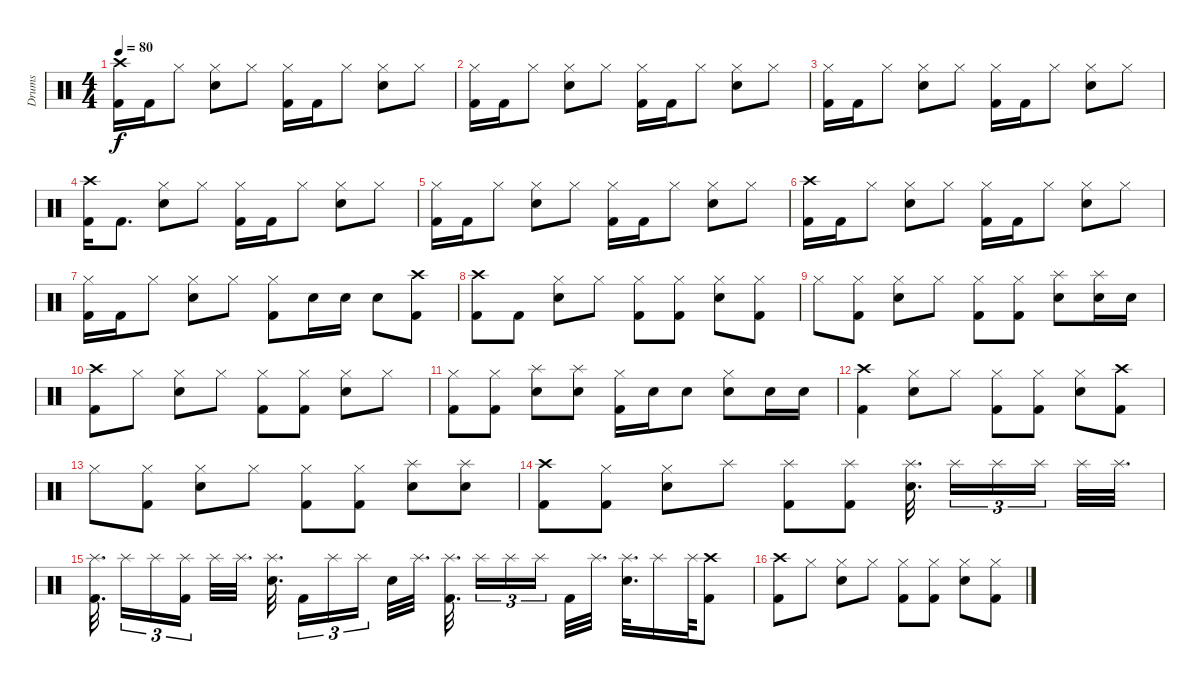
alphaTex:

\track ("Drums         " "Drums     ") {instrument percussion}
\staff {score}
\articulation defaults
\ts (4 4)
\tempo 80
\clef neutral
\ks c
("Kick (hit) 2" "Crash high (hit)").16{dy f} "Kick (hit) 2".16 "Hi-Hat (closed)".8 ("Snare (hit) 2" "Hi-Hat (closed)").8 "Hi-Hat (closed)".8 ("Kick (hit) 2" "Hi-Hat (closed)").16 "Kick (hit) 2".16 "Hi-Hat (closed)".8 ("Snare (hit) 2" "Hi-Hat (closed)").8 "Hi-Hat (closed)".8 |
("Kick (hit) 2" "Hi-Hat (closed)").16 "Kick (hit) 2".16 "Hi-Hat (closed)".8 ("Snare (hit) 2" "Hi-Hat (closed)").8 "Hi-Hat (closed)".8 ("Kick (hit) 2" "Hi-Hat (closed)").16 "Kick (hit) 2".16 "Hi-Hat (closed)".8 ("Snare (hit) 2" "Hi-Hat (closed)").8 "Hi-Hat (closed)".8 |
("Kick (hit) 2" "Hi-Hat (closed)").16 "Kick (hit) 2".16 "Hi-Hat (closed)".8 ("Snare (hit) 2" "Hi-Hat (closed)").8 "Hi-Hat (closed)".8 ("Kick (hit) 2" "Hi-Hat (closed)").16 "Kick (hit) 2".16 "Hi-Hat (closed)".8 ("Snare (hit) 2" "Hi-Hat (closed)").8 "Hi-Hat (closed)".8 |
("Kick (hit) 2" "Crash high (hit)").16 "Kick (hit) 2".8{d} ("Snare (hit) 2" "Hi-Hat (closed)").8 "Hi-Hat (closed)".8 ("Kick (hit) 2" "Hi-Hat (closed)").16 "Kick (hit) 2".16 "Hi-Hat (closed)".8 ("Snare (hit) 2" "Hi-Hat (closed)").8 "Hi-Hat (closed)".8 |
("Kick (hit) 2" "Hi-Hat (closed)").16 "Kick (hit) 2".16 "Hi-Hat (closed)".8 ("Snare (hit) 2" "Hi-Hat (closed)").8 "Hi-Hat (closed)".8 ("Kick (hit) 2" "Hi-Hat (closed)").16 "Kick (hit) 2".16 "Hi-Hat (closed)".8 ("Snare (hit) 2" "Hi-Hat (closed)").8 "Hi-Hat (closed)".8 |
("Kick (hit) 2" "Crash high (hit)").16 "Kick (hit) 2".16 "Hi-Hat (closed)".8 ("Snare (hit) 2" "Hi-Hat (closed)").8 "Hi-Hat (closed)".8 ("Kick (hit) 2" "Hi-Hat (closed)").16 "Kick (hit) 2".16 "Hi-Hat (closed)".8 ("Snare (hit) 2" "Hi-Hat (closed)").8 "Hi-Hat (closed)".8 |
("Kick (hit) 2" "Hi-Hat (closed)").16 "Kick (hit) 2".16 "Hi-Hat (closed)".8 ("Snare (hit) 2" "Hi-Hat (closed)").8 "Hi-Hat (closed)".8 ("Kick (hit) 2" "Hi-Hat (closed)").8 "Snare (hit) 2".16 "Snare (hit) 2".16 "Snare (hit) 2".8 ("Kick (hit) 2" "Crash high (hit)").8 |
("Kick (hit) 2" "Crash high (hit)").8 "Kick (hit) 2".8 ("Snare (hit) 2" "Hi-Hat (closed)").8 "Hi-Hat (closed)".8 ("Kick (hit) 2" "Hi-Hat (closed)").8 ("Kick (hit) 2" "Hi-Hat (closed)").8 ("Snare (hit) 2" "Hi-Hat (closed)").8 ("Kick (hit) 2" "Hi-Hat (closed)").8 |
"Hi-Hat (closed)".8 ("Kick (hit) 2" "Hi-Hat (closed)").8 ("Snare (hit) 2" "Hi-Hat (closed)").8 "Hi-Hat (closed)".8 ("Kick (hit) 2" "Hi-Hat (closed)").8 ("Kick (hit) 2" "Hi-Hat (closed)").8 ("Snare (hit) 2" "Splash (hit)").8 ("Snare (hit) 2" "Splash (hit)").16 "Snare (hit) 2".16 |
("Kick (hit) 2" "Crash high (hit)").8 "Hi-Hat (closed)".8 ("Snare (hit) 2" "Hi-Hat (closed)").8 "Hi-Hat (closed)".8 ("Kick (hit) 2" "Hi-Hat (closed)").8 ("Kick (hit) 2" "Hi-Hat (closed)").8 ("Snare (hit) 2" "Hi-Hat (closed)").8 "Hi-Hat (closed)".8 |
("Kick (hit) 2" "Hi-Hat (closed)").8 ("Kick (hit) 2" "Hi-Hat (closed)").8 ("Snare (hit) 2" "Splash (hit)").8 ("Snare (hit) 2" "Splash (hit)").8 ("Kick (hit) 2" "Hi-Hat (closed)").16 "Snare (hit) 2".16 "Snare (hit) 2".8 ("Snare (hit) 2" "Hi-Hat (closed)").8 "Snare (hit) 2".16 "Snare (hit) 2".16 |
("Kick (hit) 2" "Crash high (hit)").4 ("Snare (hit) 2" "Hi-Hat (closed)").8 "Hi-Hat (closed)".8 ("Kick (hit) 2" "Hi-Hat (closed)").8 ("Kick (hit) 2" "Hi-Hat (closed)").8 ("Snare (hit) 2" "Hi-Hat (closed)").8 ("Kick (hit) 2" "Crash high (hit)").8 |
"Hi-Hat (closed)".8 ("Kick (hit) 2" "Hi-Hat (closed)").8 ("Snare (hit) 2" "Hi-Hat (closed)").8 "Hi-Hat (closed)".8 ("Kick (hit) 2" "Hi-Hat (closed)").8 ("Kick (hit) 2" "Hi-Hat (closed)").8 ("Snare (hit) 2" "Splash (hit)").8 ("Snare (hit) 2" "Splash (hit)").8 |
("Kick (hit) 2" "Crash high (hit)").8 ("Kick (hit) 2" "Hi-Hat (closed)").8 ("Snare (hit) 2" "Hi-Hat (closed)").8 "Splash (hit)".8 ("Kick (hit) 2" "Splash (hit)").8 ("Kick (hit) 2" "Splash (hit)").8 ("Snare (hit) 2" "Splash (hit)").32{d beam splitsecondary} "Splash (hit)".16{tu (3 2)} "Splash (hit)".16{tu (3 2)} "Splash (hit)".16{tu (3 2) beam splitsecondary} "Splash (hit)".32 "Splash (hit)".32{d} |
("Kick (hit) 2" "Splash (hit)").32{d beam splitsecondary} "Splash (hit)".16{tu (3 2)} "Splash (hit)".16{tu (3 2)} ("Kick (hit) 2" "Splash (hit)").16{tu (3 2) beam splitsecondary} "Splash (hit)".32 "Splash (hit)".32{d} ("Snare (hit) 2" "Splash (hit)").32{d beam splitsecondary} "Kick (hit) 2".16{tu (3 2)} "Splash (hit)".16{tu (3 2)} "Splash (hit)".16{tu (3 2) beam splitsecondary} "Snare (hit) 2".32 "Splash (hit)".32{d} ("Kick (hit) 2" "Splash (hit)").32{d beam splitsecondary} "Splash (hit)".16{tu (3 2)} "Splash (hit)".16{tu (3 2)} "Splash (hit)".16{tu (3 2) beam splitsecondary} "Kick (hit) 2".32 "Splash (hit)".32{d} ("Snare (hit) 2" "Splash (hit)").32{d} "Splash (hit)".16 "Splash (hit)".64 ("Kick (hit) 2" "Crash high (hit)").8 |
("Kick (hit) 2" "Crash high (hit)").8 "Hi-Hat (closed)".8 ("Snare (hit) 2" "Hi-Hat (closed)").8 "Hi-Hat (closed)".8 ("Kick (hit) 2" "Hi-Hat (closed)").8 ("Kick (hit) 2" "Hi-Hat (closed)").8 ("Snare (hit) 2" "Hi-Hat (closed)").8 ("Kick (hit) 2" "Hi-Hat (closed)").8
